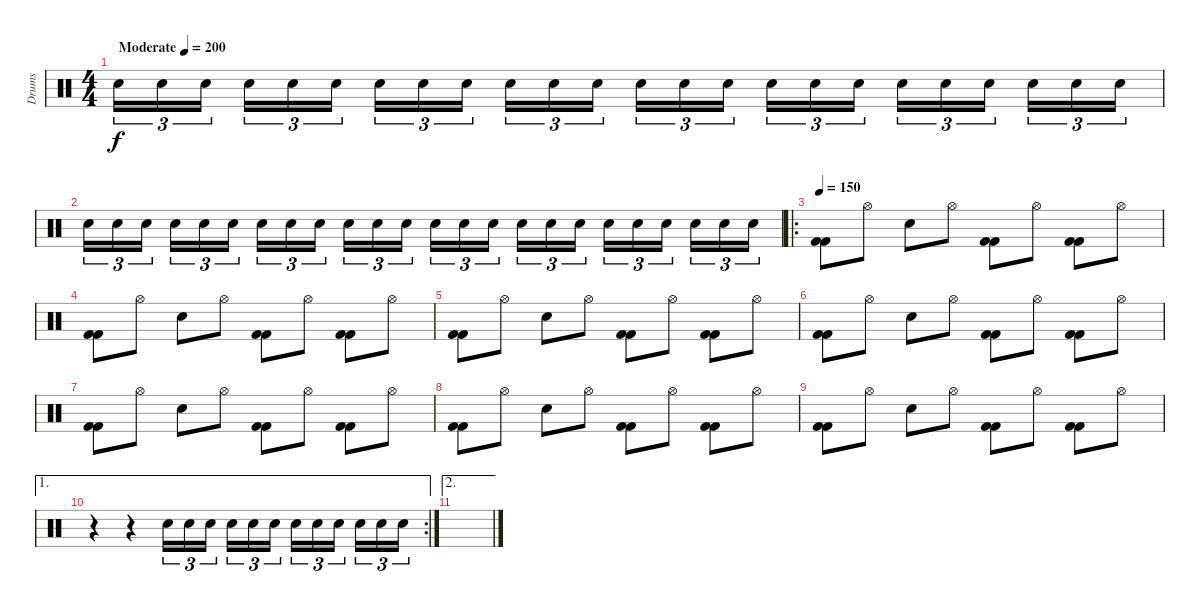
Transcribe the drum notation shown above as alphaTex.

\track ("Drums" "Drums") {instrument percussion}
\staff {score}
\articulation defaults
\ts (4 4)
\tempo (200 "Moderate")
\clef neutral
\ks c "Snare (hit) 2".16{tu (3 2) dy f} "Snare (hit) 2".16{tu (3 2)} "Snare (hit) 2".16{tu (3 2) beam splitsecondary} "Snare (hit) 2".16{tu (3 2)} "Snare (hit) 2".16{tu (3 2)} "Snare (hit) 2".16{tu (3 2)} "Snare (hit) 2".16{tu (3 2)} "Snare (hit) 2".16{tu (3 2)} "Snare (hit) 2".16{tu (3 2) beam splitsecondary} "Snare (hit) 2".16{tu (3 2)} "Snare (hit) 2".16{tu (3 2)} "Snare (hit) 2".16{tu (3 2)} "Snare (hit) 2".16{tu (3 2)} "Snare (hit) 2".16{tu (3 2)} "Snare (hit) 2".16{tu (3 2) beam splitsecondary} "Snare (hit) 2".16{tu (3 2)} "Snare (hit) 2".16{tu (3 2)} "Snare (hit) 2".16{tu (3 2)} "Snare (hit) 2".16{tu (3 2)} "Snare (hit) 2".16{tu (3 2)} "Snare (hit) 2".16{tu (3 2) beam splitsecondary} "Snare (hit) 2".16{tu (3 2)} "Snare (hit) 2".16{tu (3 2)} "Snare (hit) 2".16{tu (3 2)}
|
"Snare (hit) 2".16{tu (3 2)} "Snare (hit) 2".16{tu (3 2)} "Snare (hit) 2".16{tu (3 2) beam splitsecondary} "Snare (hit) 2".16{tu (3 2)} "Snare (hit) 2".16{tu (3 2)} "Snare (hit) 2".16{tu (3 2)} "Snare (hit) 2".16{tu (3 2)} "Snare (hit) 2".16{tu (3 2)} "Snare (hit) 2".16{tu (3 2) beam splitsecondary} "Snare (hit) 2".16{tu (3 2)} "Snare (hit) 2".16{tu (3 2)} "Snare (hit) 2".16{tu (3 2)} "Snare (hit) 2".16{tu (3 2)} "Snare (hit) 2".16{tu (3 2)} "Snare (hit) 2".16{tu (3 2) beam splitsecondary} "Snare (hit) 2".16{tu (3 2)} "Snare (hit) 2".16{tu (3 2)} "Snare (hit) 2".16{tu (3 2)} "Snare (hit) 2".16{tu (3 2)} "Snare (hit) 2".16{tu (3 2)} "Snare (hit) 2".16{tu (3 2) beam splitsecondary} "Snare (hit) 2".16{tu (3 2)} "Snare (hit) 2".16{tu (3 2)} "Snare (hit) 2".16{tu (3 2)} |
\ro
\tempo 150
("Kick (hit) 2" "Kick (hit) 2").8 "Hi-Hat (open)".8 "Snare (hit) 2".8 "Hi-Hat (open)".8 ("Kick (hit) 2" "Kick (hit) 2").8 "Hi-Hat (open)".8 ("Kick (hit) 2" "Kick (hit) 2").8 "Hi-Hat (open)".8 |
("Kick (hit) 2" "Kick (hit) 2").8 "Hi-Hat (open)".8 "Snare (hit) 2".8 "Hi-Hat (open)".8 ("Kick (hit) 2" "Kick (hit) 2").8 "Hi-Hat (open)".8 ("Kick (hit) 2" "Kick (hit) 2").8 "Hi-Hat (open)".8 |
("Kick (hit) 2" "Kick (hit) 2").8 "Hi-Hat (open)".8 "Snare (hit) 2".8 "Hi-Hat (open)".8 ("Kick (hit) 2" "Kick (hit) 2").8 "Hi-Hat (open)".8 ("Kick (hit) 2" "Kick (hit) 2").8 "Hi-Hat (open)".8 |
("Kick (hit) 2" "Kick (hit) 2").8 "Hi-Hat (open)".8 "Snare (hit) 2".8 "Hi-Hat (open)".8 ("Kick (hit) 2" "Kick (hit) 2").8 "Hi-Hat (open)".8 ("Kick (hit) 2" "Kick (hit) 2").8 "Hi-Hat (open)".8 |
("Kick (hit) 2" "Kick (hit) 2").8 "Hi-Hat (open)".8 "Snare (hit) 2".8 "Hi-Hat (open)".8 ("Kick (hit) 2" "Kick (hit) 2").8 "Hi-Hat (open)".8 ("Kick (hit) 2" "Kick (hit) 2").8 "Hi-Hat (open)".8 |
("Kick (hit) 2" "Kick (hit) 2").8 "Hi-Hat (open)".8 "Snare (hit) 2".8 "Hi-Hat (open)".8 ("Kick (hit) 2" "Kick (hit) 2").8 "Hi-Hat (open)".8 ("Kick (hit) 2" "Kick (hit) 2").8 "Hi-Hat (open)".8 |
("Kick (hit) 2" "Kick (hit) 2").8 "Hi-Hat (open)".8 "Snare (hit) 2".8 "Hi-Hat (open)".8 ("Kick (hit) 2" "Kick (hit) 2").8 "Hi-Hat (open)".8 ("Kick (hit) 2" "Kick (hit) 2").8 "Hi-Hat (open)".8 |
\ae 1
\rc 2
r.4 r.4 "Snare (hit) 2".16{tu (3 2)} "Snare (hit) 2".16{tu (3 2)} "Snare (hit) 2".16{tu (3 2) beam splitsecondary} "Snare (hit) 2".16{tu (3 2)} "Snare (hit) 2".16{tu (3 2)} "Snare (hit) 2".16{tu (3 2)} "Snare (hit) 2".16{tu (3 2)} "Snare (hit) 2".16{tu (3 2)} "Snare (hit) 2".16{tu (3 2) beam splitsecondary} "Snare (hit) 2".16{tu (3 2)} "Snare (hit) 2".16{tu (3 2)} "Snare (hit) 2".16{tu (3 2)} |
\ae 2
